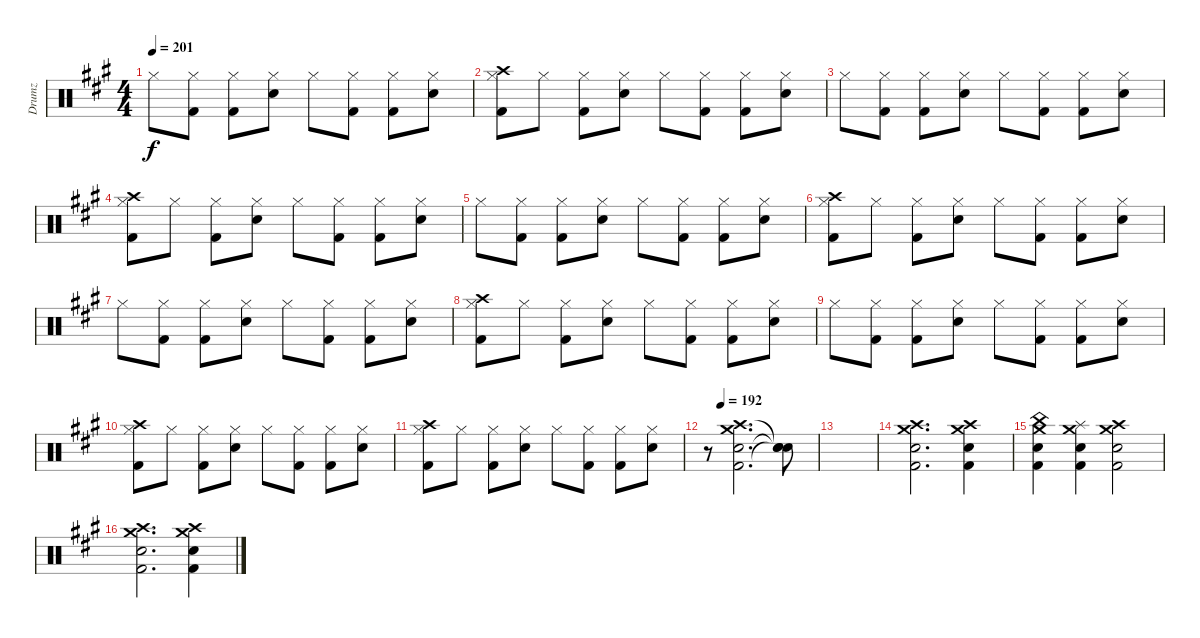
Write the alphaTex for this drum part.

\track ("Drumz" "Drumz") {instrument percussion}
\staff {score}
\articulation defaults
\ts (4 4)
\tempo 201
\clef neutral
\ks a "Hi-Hat (closed)".8{dy f}
("Hi-Hat (closed)" "Kick (hit) 2").8 ("Hi-Hat (closed)" "Kick (hit) 2").8 ("Hi-Hat (closed)" "Snare (hit) 2").8 "Hi-Hat (closed)".8 ("Hi-Hat (closed)" "Kick (hit) 2").8 ("Hi-Hat (closed)" "Kick (hit) 2").8 ("Hi-Hat (closed)" "Snare (hit) 2").8 |
("Hi-Hat (closed)" "Kick (hit) 2" "Crash high (hit)").8 "Hi-Hat (closed)".8 ("Hi-Hat (closed)" "Kick (hit) 2").8 ("Hi-Hat (closed)" "Snare (hit) 2").8 "Hi-Hat (closed)".8 ("Hi-Hat (closed)" "Kick (hit) 2").8 ("Hi-Hat (closed)" "Kick (hit) 2").8 ("Hi-Hat (closed)" "Snare (hit) 2").8 |
"Hi-Hat (closed)".8 ("Hi-Hat (closed)" "Kick (hit) 2").8 ("Hi-Hat (closed)" "Kick (hit) 2").8 ("Hi-Hat (closed)" "Snare (hit) 2").8 "Hi-Hat (closed)".8 ("Hi-Hat (closed)" "Kick (hit) 2").8 ("Hi-Hat (closed)" "Kick (hit) 2").8 ("Hi-Hat (closed)" "Snare (hit) 2").8 |
("Hi-Hat (closed)" "Kick (hit) 2" "Crash high (hit)").8 "Hi-Hat (closed)".8 ("Hi-Hat (closed)" "Kick (hit) 2").8 ("Hi-Hat (closed)" "Snare (hit) 2").8 "Hi-Hat (closed)".8 ("Hi-Hat (closed)" "Kick (hit) 2").8 ("Hi-Hat (closed)" "Kick (hit) 2").8 ("Hi-Hat (closed)" "Snare (hit) 2").8 |
"Hi-Hat (closed)".8 ("Hi-Hat (closed)" "Kick (hit) 2").8 ("Hi-Hat (closed)" "Kick (hit) 2").8 ("Hi-Hat (closed)" "Snare (hit) 2").8 "Hi-Hat (closed)".8 ("Hi-Hat (closed)" "Kick (hit) 2").8 ("Hi-Hat (closed)" "Kick (hit) 2").8 ("Hi-Hat (closed)" "Snare (hit) 2").8 |
("Hi-Hat (closed)" "Kick (hit) 2" "Crash high (hit)").8 "Hi-Hat (closed)".8 ("Hi-Hat (closed)" "Kick (hit) 2").8 ("Hi-Hat (closed)" "Snare (hit) 2").8 "Hi-Hat (closed)".8 ("Hi-Hat (closed)" "Kick (hit) 2").8 ("Hi-Hat (closed)" "Kick (hit) 2").8 ("Hi-Hat (closed)" "Snare (hit) 2").8 |
"Hi-Hat (closed)".8 ("Hi-Hat (closed)" "Kick (hit) 2").8 ("Hi-Hat (closed)" "Kick (hit) 2").8 ("Hi-Hat (closed)" "Snare (hit) 2").8 "Hi-Hat (closed)".8 ("Hi-Hat (closed)" "Kick (hit) 2").8 ("Hi-Hat (closed)" "Kick (hit) 2").8 ("Hi-Hat (closed)" "Snare (hit) 2").8 |
("Hi-Hat (closed)" "Kick (hit) 2" "Crash high (hit)").8 "Hi-Hat (closed)".8 ("Hi-Hat (closed)" "Kick (hit) 2").8 ("Hi-Hat (closed)" "Snare (hit) 2").8 "Hi-Hat (closed)".8 ("Hi-Hat (closed)" "Kick (hit) 2").8 ("Hi-Hat (closed)" "Kick (hit) 2").8 ("Hi-Hat (closed)" "Snare (hit) 2").8 |
"Hi-Hat (closed)".8 ("Hi-Hat (closed)" "Kick (hit) 2").8 ("Hi-Hat (closed)" "Kick (hit) 2").8 ("Hi-Hat (closed)" "Snare (hit) 2").8 "Hi-Hat (closed)".8 ("Hi-Hat (closed)" "Kick (hit) 2").8 ("Hi-Hat (closed)" "Kick (hit) 2").8 ("Hi-Hat (closed)" "Snare (hit) 2").8 |
("Hi-Hat (closed)" "Kick (hit) 2" "Crash high (hit)").8 "Hi-Hat (closed)".8 ("Hi-Hat (closed)" "Kick (hit) 2").8 ("Hi-Hat (closed)" "Snare (hit) 2").8 "Hi-Hat (closed)".8 ("Hi-Hat (closed)" "Kick (hit) 2").8 ("Hi-Hat (closed)" "Kick (hit) 2").8 ("Hi-Hat (closed)" "Snare (hit) 2").8 |
("Hi-Hat (closed)" "Kick (hit) 2" "Crash high (hit)").8 "Hi-Hat (closed)".8 ("Hi-Hat (closed)" "Kick (hit) 2").8 ("Hi-Hat (closed)" "Snare (hit) 2").8 "Hi-Hat (closed)".8 ("Hi-Hat (closed)" "Kick (hit) 2").8 ("Hi-Hat (closed)" "Kick (hit) 2").8 ("Hi-Hat (closed)" "Snare (hit) 2").8 |
\tempo (192 0.125)
r.8 ("Kick (hit) 2" "Snare (hit) 2" "Crash high (hit)" "Crash medium (hit)").2{d} ("Snare (hit)"{t} "Snare (hit)"{t} "Snare (hit)"{t}).8 |
|
("Kick (hit) 2" "Snare (hit) 2" "Crash high (hit)" "Crash medium (hit)").2{d} ("Kick (hit) 2" "Snare (hit) 2" "Crash high (hit)" "Crash medium (hit)").4 |
("Snare (hit) 2" "Kick (hit) 2" "China (hit)" "Crash medium (hit)").4 ("Snare (hit) 2" "Kick (hit) 2" "Splash (hit)" "Crash medium (hit)").4 ("Snare (hit) 2" "Kick (hit) 2" "Crash high (hit)" "Crash medium (hit)").2 |
("Kick (hit) 2" "Snare (hit) 2" "Crash high (hit)" "Crash medium (hit)").2{d} ("Kick (hit) 2" "Snare (hit) 2" "Crash high (hit)" "Crash medium (hit)").4
